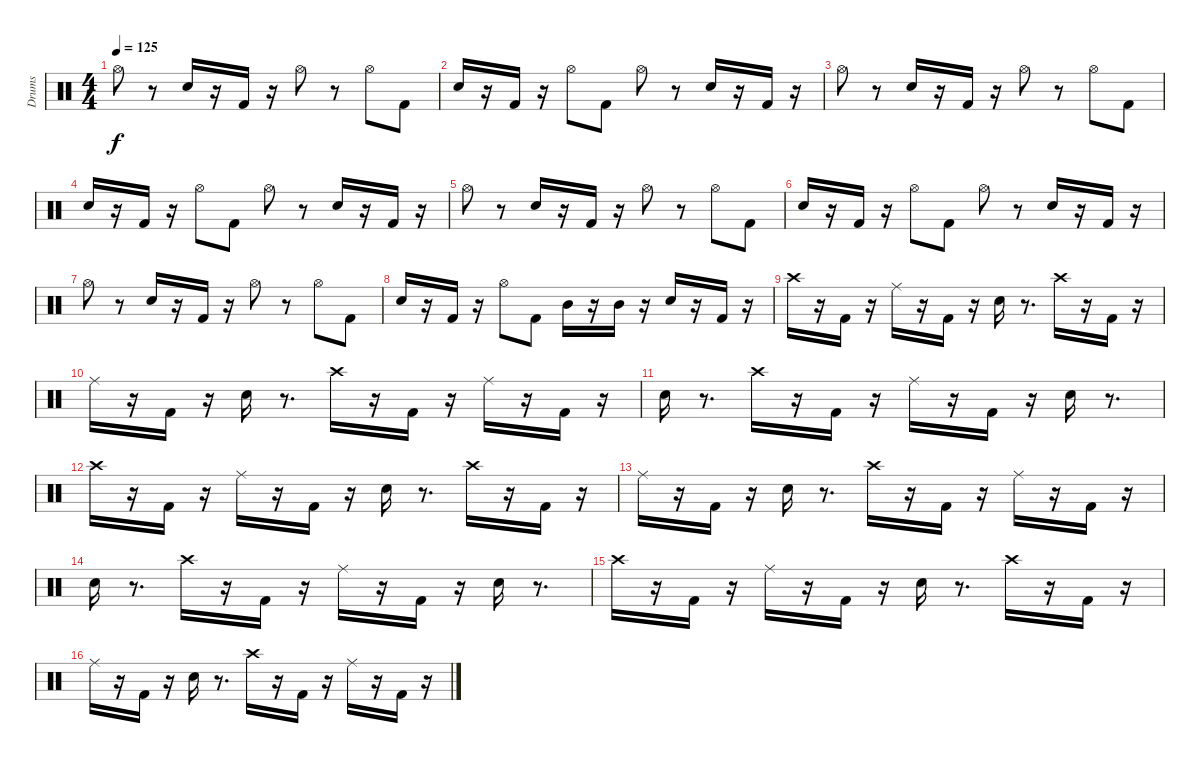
\track ("Drums" "Drums") {instrument percussion}
\staff {score}
\articulation defaults
\ts (4 4)
\tempo 125
\clef neutral
\ks c "Hi-Hat (open)".8{dy f}
r.8 "Snare (hit) 2".16 r.16 "Kick (hit) 2".16 r.16 "Hi-Hat (open)".8 r.8 "Hi-Hat (open)".8 "Kick (hit) 2".8 |
"Snare (hit) 2".16 r.16 "Kick (hit) 2".16 r.16 "Hi-Hat (open)".8 "Kick (hit) 2".8 "Hi-Hat (open)".8 r.8 "Snare (hit) 2".16 r.16 "Kick (hit) 2".16 r.16 |
"Hi-Hat (open)".8 r.8 "Snare (hit) 2".16 r.16 "Kick (hit) 2".16 r.16 "Hi-Hat (open)".8 r.8 "Hi-Hat (open)".8 "Kick (hit) 2".8 |
"Snare (hit) 2".16 r.16 "Kick (hit) 2".16 r.16 "Hi-Hat (open)".8 "Kick (hit) 2".8 "Hi-Hat (open)".8 r.8 "Snare (hit) 2".16 r.16 "Kick (hit) 2".16 r.16 |
"Hi-Hat (open)".8 r.8 "Snare (hit) 2".16 r.16 "Kick (hit) 2".16 r.16 "Hi-Hat (open)".8 r.8 "Hi-Hat (open)".8 "Kick (hit) 2".8 |
"Snare (hit) 2".16 r.16 "Kick (hit) 2".16 r.16 "Hi-Hat (open)".8 "Kick (hit) 2".8 "Hi-Hat (open)".8 r.8 "Snare (hit) 2".16 r.16 "Kick (hit) 2".16 r.16 |
"Hi-Hat (open)".8 r.8 "Snare (hit) 2".16 r.16 "Kick (hit) 2".16 r.16 "Hi-Hat (open)".8 r.8 "Hi-Hat (open)".8 "Kick (hit) 2".8 |
"Snare (hit) 2".16 r.16 "Kick (hit) 2".16 r.16 "Hi-Hat (open)".8 "Kick (hit) 2".8 "Mid Tom (hit)".16 r.16 "Mid Tom (hit)".16 r.16 "Snare (hit) 2".16 r.16 "Kick (hit) 2".16 r.16 |
"Crash high (hit)".16 r.16 "Kick (hit) 2".16 r.16 "Ride (middle)".16 r.16 "Kick (hit) 2".16 r.16 "Snare (hit) 2".16 r.8{d} "Crash high (hit)".16 r.16 "Kick (hit) 2".16 r.16 |
"Ride (middle)".16 r.16 "Kick (hit) 2".16 r.16 "Snare (hit) 2".16 r.8{d} "Crash high (hit)".16 r.16 "Kick (hit) 2".16 r.16 "Ride (middle)".16 r.16 "Kick (hit) 2".16 r.16 |
"Snare (hit) 2".16 r.8{d} "Crash high (hit)".16 r.16 "Kick (hit) 2".16 r.16 "Ride (middle)".16 r.16 "Kick (hit) 2".16 r.16 "Snare (hit) 2".16 r.8{d} |
"Crash high (hit)".16 r.16 "Kick (hit) 2".16 r.16 "Ride (middle)".16 r.16 "Kick (hit) 2".16 r.16 "Snare (hit) 2".16 r.8{d} "Crash high (hit)".16 r.16 "Kick (hit) 2".16 r.16 |
"Ride (middle)".16 r.16 "Kick (hit) 2".16 r.16 "Snare (hit) 2".16 r.8{d} "Crash high (hit)".16 r.16 "Kick (hit) 2".16 r.16 "Ride (middle)".16 r.16 "Kick (hit) 2".16 r.16 |
"Snare (hit) 2".16 r.8{d} "Crash high (hit)".16 r.16 "Kick (hit) 2".16 r.16 "Ride (middle)".16 r.16 "Kick (hit) 2".16 r.16 "Snare (hit) 2".16 r.8{d} |
"Crash high (hit)".16 r.16 "Kick (hit) 2".16 r.16 "Ride (middle)".16 r.16 "Kick (hit) 2".16 r.16 "Snare (hit) 2".16 r.8{d} "Crash high (hit)".16 r.16 "Kick (hit) 2".16 r.16 |
"Ride (middle)".16 r.16 "Kick (hit) 2".16 r.16 "Snare (hit) 2".16 r.8{d} "Crash high (hit)".16 r.16 "Kick (hit) 2".16 r.16 "Ride (middle)".16 r.16 "Kick (hit) 2".16 r.16
